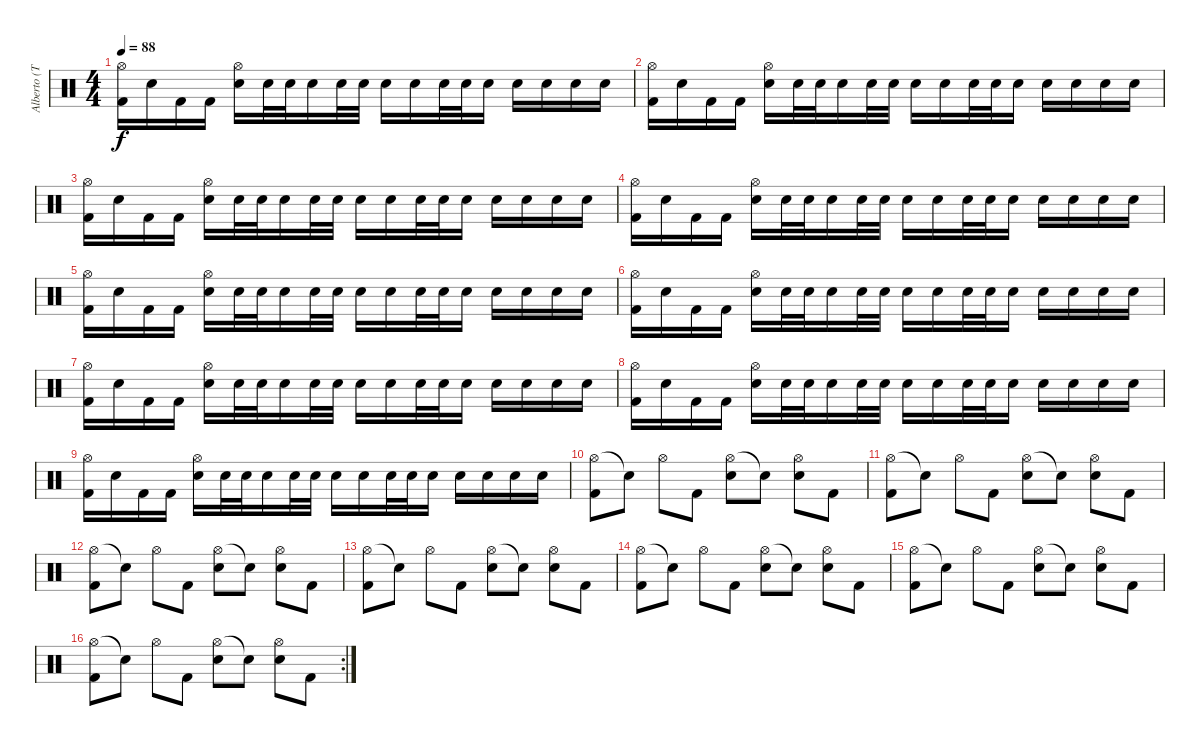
\track ("Alberto (Toshi)" "Alberto (T") {instrument percussion}
\staff {score}
\articulation defaults
\ts (4 4)
\tempo 88
\clef neutral
\ks c
("Hi-Hat (open)" "Kick (hit) 2").16{dy f} "Electric Snare (hit)".16 "Kick (hit) 2".16 "Kick (hit) 2".16 ("Hi-Hat (open)" "Electric Snare (hit)").16 "Electric Snare (hit)".32 "Electric Snare (hit)".32 "Electric Snare (hit)".16 "Electric Snare (hit)".32 "Electric Snare (hit)".32 "Electric Snare (hit)".16 "Electric Snare (hit)".16 "Electric Snare (hit)".32 "Electric Snare (hit)".32 "Electric Snare (hit)".16 "Electric Snare (hit)".16 "Electric Snare (hit)".16 "Electric Snare (hit)".16 "Electric Snare (hit)".16 |
("Hi-Hat (open)" "Kick (hit) 2").16 "Electric Snare (hit)".16 "Kick (hit) 2".16 "Kick (hit) 2".16 ("Hi-Hat (open)" "Electric Snare (hit)").16 "Electric Snare (hit)".32 "Electric Snare (hit)".32 "Electric Snare (hit)".16 "Electric Snare (hit)".32 "Electric Snare (hit)".32 "Electric Snare (hit)".16 "Electric Snare (hit)".16 "Electric Snare (hit)".32 "Electric Snare (hit)".32 "Electric Snare (hit)".16 "Electric Snare (hit)".16 "Electric Snare (hit)".16 "Electric Snare (hit)".16 "Electric Snare (hit)".16 |
("Hi-Hat (open)" "Kick (hit) 2").16 "Electric Snare (hit)".16 "Kick (hit) 2".16 "Kick (hit) 2".16 ("Hi-Hat (open)" "Electric Snare (hit)").16 "Electric Snare (hit)".32 "Electric Snare (hit)".32 "Electric Snare (hit)".16 "Electric Snare (hit)".32 "Electric Snare (hit)".32 "Electric Snare (hit)".16 "Electric Snare (hit)".16 "Electric Snare (hit)".32 "Electric Snare (hit)".32 "Electric Snare (hit)".16 "Electric Snare (hit)".16 "Electric Snare (hit)".16 "Electric Snare (hit)".16 "Electric Snare (hit)".16 |
("Hi-Hat (open)" "Kick (hit) 2").16 "Electric Snare (hit)".16 "Kick (hit) 2".16 "Kick (hit) 2".16 ("Hi-Hat (open)" "Electric Snare (hit)").16 "Electric Snare (hit)".32 "Electric Snare (hit)".32 "Electric Snare (hit)".16 "Electric Snare (hit)".32 "Electric Snare (hit)".32 "Electric Snare (hit)".16 "Electric Snare (hit)".16 "Electric Snare (hit)".32 "Electric Snare (hit)".32 "Electric Snare (hit)".16 "Electric Snare (hit)".16 "Electric Snare (hit)".16 "Electric Snare (hit)".16 "Electric Snare (hit)".16 |
("Hi-Hat (open)" "Kick (hit) 2").16 "Electric Snare (hit)".16 "Kick (hit) 2".16 "Kick (hit) 2".16 ("Hi-Hat (open)" "Electric Snare (hit)").16 "Electric Snare (hit)".32 "Electric Snare (hit)".32 "Electric Snare (hit)".16 "Electric Snare (hit)".32 "Electric Snare (hit)".32 "Electric Snare (hit)".16 "Electric Snare (hit)".16 "Electric Snare (hit)".32 "Electric Snare (hit)".32 "Electric Snare (hit)".16 "Electric Snare (hit)".16 "Electric Snare (hit)".16 "Electric Snare (hit)".16 "Electric Snare (hit)".16 |
("Hi-Hat (open)" "Kick (hit) 2").16 "Electric Snare (hit)".16 "Kick (hit) 2".16 "Kick (hit) 2".16 ("Hi-Hat (open)" "Electric Snare (hit)").16 "Electric Snare (hit)".32 "Electric Snare (hit)".32 "Electric Snare (hit)".16 "Electric Snare (hit)".32 "Electric Snare (hit)".32 "Electric Snare (hit)".16 "Electric Snare (hit)".16 "Electric Snare (hit)".32 "Electric Snare (hit)".32 "Electric Snare (hit)".16 "Electric Snare (hit)".16 "Electric Snare (hit)".16 "Electric Snare (hit)".16 "Electric Snare (hit)".16 |
("Hi-Hat (open)" "Kick (hit) 2").16 "Electric Snare (hit)".16 "Kick (hit) 2".16 "Kick (hit) 2".16 ("Hi-Hat (open)" "Electric Snare (hit)").16 "Electric Snare (hit)".32 "Electric Snare (hit)".32 "Electric Snare (hit)".16 "Electric Snare (hit)".32 "Electric Snare (hit)".32 "Electric Snare (hit)".16 "Electric Snare (hit)".16 "Electric Snare (hit)".32 "Electric Snare (hit)".32 "Electric Snare (hit)".16 "Electric Snare (hit)".16 "Electric Snare (hit)".16 "Electric Snare (hit)".16 "Electric Snare (hit)".16 |
("Hi-Hat (open)" "Kick (hit) 2").16 "Electric Snare (hit)".16 "Kick (hit) 2".16 "Kick (hit) 2".16 ("Hi-Hat (open)" "Electric Snare (hit)").16 "Electric Snare (hit)".32 "Electric Snare (hit)".32 "Electric Snare (hit)".16 "Electric Snare (hit)".32 "Electric Snare (hit)".32 "Electric Snare (hit)".16 "Electric Snare (hit)".16 "Electric Snare (hit)".32 "Electric Snare (hit)".32 "Electric Snare (hit)".16 "Electric Snare (hit)".16 "Electric Snare (hit)".16 "Electric Snare (hit)".16 "Electric Snare (hit)".16 |
("Hi-Hat (open)" "Kick (hit) 2").16 "Electric Snare (hit)".16 "Kick (hit) 2".16 "Kick (hit) 2".16 ("Hi-Hat (open)" "Electric Snare (hit)").16 "Electric Snare (hit)".32 "Electric Snare (hit)".32 "Electric Snare (hit)".16 "Electric Snare (hit)".32 "Electric Snare (hit)".32 "Electric Snare (hit)".16 "Electric Snare (hit)".16 "Electric Snare (hit)".32 "Electric Snare (hit)".32 "Electric Snare (hit)".16 "Electric Snare (hit)".16 "Electric Snare (hit)".16 "Electric Snare (hit)".16 "Electric Snare (hit)".16 |
("Hi-Hat (open)" "Kick (hit) 2").8 "Snare (hit)"{t}.8 "Hi-Hat (open)".8 "Kick (hit) 2".8 ("Hi-Hat (open)" "Electric Snare (hit)").8 "Snare (hit)"{t}.8 ("Hi-Hat (open)" "Electric Snare (hit)").8 "Kick (hit) 2".8 |
("Hi-Hat (open)" "Kick (hit) 2").8 "Snare (hit)"{t}.8 "Hi-Hat (open)".8 "Kick (hit) 2".8 ("Hi-Hat (open)" "Electric Snare (hit)").8 "Snare (hit)"{t}.8 ("Hi-Hat (open)" "Electric Snare (hit)").8 "Kick (hit) 2".8 |
("Hi-Hat (open)" "Kick (hit) 2").8 "Snare (hit)"{t}.8 "Hi-Hat (open)".8 "Kick (hit) 2".8 ("Hi-Hat (open)" "Electric Snare (hit)").8 "Snare (hit)"{t}.8 ("Hi-Hat (open)" "Electric Snare (hit)").8 "Kick (hit) 2".8 |
("Hi-Hat (open)" "Kick (hit) 2").8 "Snare (hit)"{t}.8 "Hi-Hat (open)".8 "Kick (hit) 2".8 ("Hi-Hat (open)" "Electric Snare (hit)").8 "Snare (hit)"{t}.8 ("Hi-Hat (open)" "Electric Snare (hit)").8 "Kick (hit) 2".8 |
("Hi-Hat (open)" "Kick (hit) 2").8 "Snare (hit)"{t}.8 "Hi-Hat (open)".8 "Kick (hit) 2".8 ("Hi-Hat (open)" "Electric Snare (hit)").8 "Snare (hit)"{t}.8 ("Hi-Hat (open)" "Electric Snare (hit)").8 "Kick (hit) 2".8 |
("Hi-Hat (open)" "Kick (hit) 2").8 "Snare (hit)"{t}.8 "Hi-Hat (open)".8 "Kick (hit) 2".8 ("Hi-Hat (open)" "Electric Snare (hit)").8 "Snare (hit)"{t}.8 ("Hi-Hat (open)" "Electric Snare (hit)").8 "Kick (hit) 2".8 |
\rc 2
("Hi-Hat (open)" "Kick (hit) 2").8 "Snare (hit)"{t}.8 "Hi-Hat (open)".8 "Kick (hit) 2".8 ("Hi-Hat (open)" "Electric Snare (hit)").8 "Snare (hit)"{t}.8 ("Hi-Hat (open)" "Electric Snare (hit)").8 "Kick (hit) 2".8
